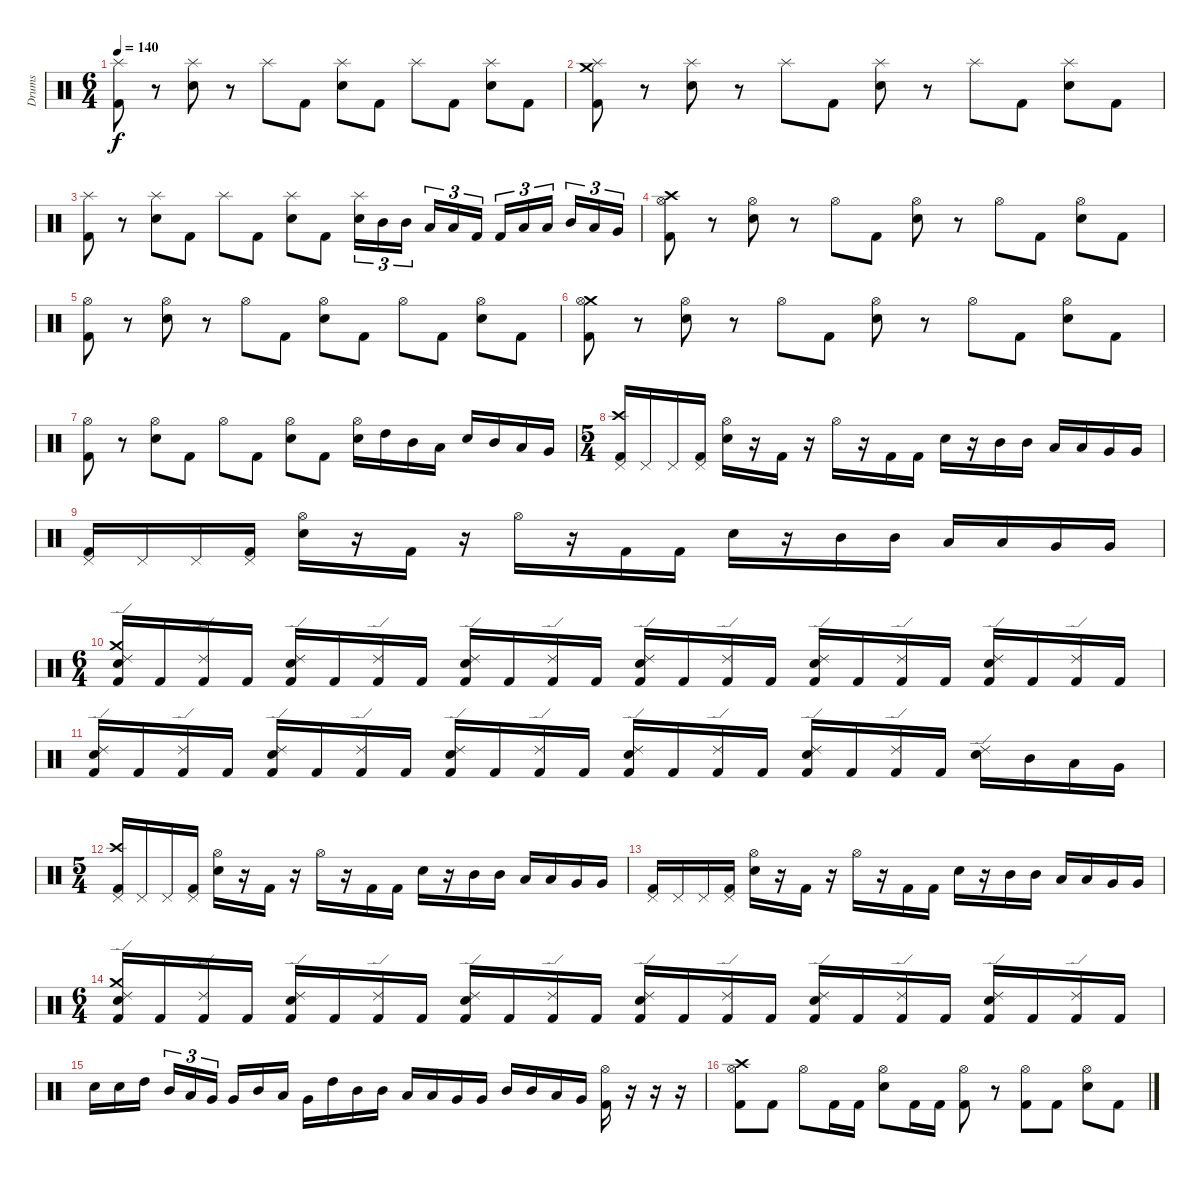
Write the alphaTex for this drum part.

\track ("Drums" "Drums") {instrument percussion}
\staff {score}
\articulation defaults
\ts (6 4)
\tempo 140
\clef neutral
\ks c
("Splash (hit)" "Kick (hit) 2").8{dy f} r.8 ("Splash (hit)" "Electric Snare (hit)").8 r.8 "Splash (hit)".8 "Kick (hit) 2".8 ("Splash (hit)" "Electric Snare (hit)").8 "Kick (hit) 2".8 "Splash (hit)".8 "Kick (hit) 2".8 ("Splash (hit)" "Electric Snare (hit)").8 "Kick (hit) 2".8 |
("Crash medium (hit)" "Splash (hit)" "Kick (hit) 2").8 r.8 ("Splash (hit)" "Electric Snare (hit)").8 r.8 "Splash (hit)".8 "Kick (hit) 2".8 ("Splash (hit)" "Electric Snare (hit)").8 r.8 "Splash (hit)".8 "Kick (hit) 2".8 ("Splash (hit)" "Electric Snare (hit)").8 "Kick (hit) 2".8 |
("Splash (hit)" "Kick (hit) 2").8 r.8 ("Splash (hit)" "Electric Snare (hit)").8 "Kick (hit) 2".8 "Splash (hit)".8 "Kick (hit) 2".8 ("Splash (hit)" "Electric Snare (hit)").8 "Kick (hit) 2".8 ("Splash (hit)" "Electric Snare (hit)").16{tu (3 2)} "Mid Tom (hit)".16{tu (3 2)} "Mid Tom (hit)".16{tu (3 2)} "Low Tom (hit)".16{tu (3 2)} "Low Tom (hit)".16{tu (3 2)} "Kick (hit) 2".16{tu (3 2)} "Kick (hit) 2".16{tu (3 2)} "Low Tom (hit)".16{tu (3 2)} "Low Tom (hit)".16{tu (3 2)} "Mid Tom (hit)".16{tu (3 2)} "Low Tom (hit)".16{tu (3 2)} "Very Low Tom (hit)".16{tu (3 2)} |
("Crash high (hit)" "Hi-Hat (open)" "Kick (hit) 2").8 r.8 ("Hi-Hat (open)" "Electric Snare (hit)").8 r.8 "Hi-Hat (open)".8 "Kick (hit) 2".8 ("Hi-Hat (open)" "Electric Snare (hit)").8 r.8 "Hi-Hat (open)".8 "Kick (hit) 2".8 ("Hi-Hat (open)" "Electric Snare (hit)").8 "Kick (hit) 2".8 |
("Hi-Hat (open)" "Kick (hit) 2").8 r.8 ("Hi-Hat (open)" "Electric Snare (hit)").8 r.8 "Hi-Hat (open)".8 "Kick (hit) 2".8 ("Hi-Hat (open)" "Electric Snare (hit)").8 "Kick (hit) 2".8 "Hi-Hat (open)".8 "Kick (hit) 2".8 ("Hi-Hat (open)" "Electric Snare (hit)").8 "Kick (hit) 2".8 |
("Crash medium (hit)" "Hi-Hat (open)" "Kick (hit) 2").8 r.8 ("Hi-Hat (open)" "Electric Snare (hit)").8 r.8 "Hi-Hat (open)".8 "Kick (hit) 2".8 ("Hi-Hat (open)" "Electric Snare (hit)").8 r.8 "Hi-Hat (open)".8 "Kick (hit) 2".8 ("Hi-Hat (open)" "Electric Snare (hit)").8 "Kick (hit) 2".8 |
("Hi-Hat (open)" "Kick (hit) 2").8 r.8 ("Hi-Hat (open)" "Electric Snare (hit)").8 "Kick (hit) 2".8 "Hi-Hat (open)".8 "Kick (hit) 2".8 ("Hi-Hat (open)" "Electric Snare (hit)").8 "Kick (hit) 2".8 ("Hi-Hat (open)" "Electric Snare (hit)").16 "High Tom (hit)".16 "Mid Tom (hit)".16 "Low Tom (hit)".16 "Electric Snare (hit)".16 "Mid Tom (hit)".16 "Low Tom (hit)".16 "Very Low Tom (hit)".16 |
\ts (5 4)
("Crash high (hit)" "Pedal Hi-Hat (hit)" "Kick (hit) 2").16 "Pedal Hi-Hat (hit)".16 "Pedal Hi-Hat (hit)".16 ("Pedal Hi-Hat (hit)" "Kick (hit) 2").16 ("Hi-Hat (open)" "Electric Snare (hit)").16 r.16 "Kick (hit) 2".16 r.16 "Hi-Hat (open)".16 r.16 "Kick (hit) 2".16 "Kick (hit) 2".16 "Electric Snare (hit)".16 r.16 "Mid Tom (hit)".16 "Mid Tom (hit)".16 "Low Tom (hit)".16 "Low Tom (hit)".16 "Very Low Tom (hit)".16 "Very Low Tom (hit)".16 |
("Pedal Hi-Hat (hit)" "Kick (hit) 2").16 "Pedal Hi-Hat (hit)".16 "Pedal Hi-Hat (hit)".16 ("Pedal Hi-Hat (hit)" "Kick (hit) 2").16 ("Hi-Hat (open)" "Electric Snare (hit)").16 r.16 "Kick (hit) 2".16 r.16 "Hi-Hat (open)".16 r.16 "Kick (hit) 2".16 "Kick (hit) 2".16 "Electric Snare (hit)".16 r.16 "Mid Tom (hit)".16 "Mid Tom (hit)".16 "Low Tom (hit)".16 "Low Tom (hit)".16 "Very Low Tom (hit)".16 "Very Low Tom (hit)".16 |
\ts (6 4)
("Crash medium (hit)" "Ride (edge) 2" "Electric Snare (hit)" "Kick (hit) 2").16 "Kick (hit) 2".16 ("Ride (edge) 2" "Kick (hit) 2").16 "Kick (hit) 2".16 ("Ride (edge) 2" "Electric Snare (hit)" "Kick (hit) 2").16 "Kick (hit) 2".16 ("Ride (edge) 2" "Kick (hit) 2").16 "Kick (hit) 2".16 ("Ride (edge) 2" "Electric Snare (hit)" "Kick (hit) 2").16 "Kick (hit) 2".16 ("Ride (edge) 2" "Kick (hit) 2").16 "Kick (hit) 2".16 ("Ride (edge) 2" "Electric Snare (hit)" "Kick (hit) 2").16 "Kick (hit) 2".16 ("Ride (edge) 2" "Kick (hit) 2").16 "Kick (hit) 2".16 ("Ride (edge) 2" "Electric Snare (hit)" "Kick (hit) 2").16 "Kick (hit) 2".16 ("Ride (edge) 2" "Kick (hit) 2").16 "Kick (hit) 2".16 ("Ride (edge) 2" "Electric Snare (hit)" "Kick (hit) 2").16 "Kick (hit) 2".16 ("Ride (edge) 2" "Kick (hit) 2").16 "Kick (hit) 2".16 |
("Ride (edge) 2" "Electric Snare (hit)" "Kick (hit) 2").16 "Kick (hit) 2".16 ("Ride (edge) 2" "Kick (hit) 2").16 "Kick (hit) 2".16 ("Ride (edge) 2" "Electric Snare (hit)" "Kick (hit) 2").16 "Kick (hit) 2".16 ("Ride (edge) 2" "Kick (hit) 2").16 "Kick (hit) 2".16 ("Ride (edge) 2" "Electric Snare (hit)" "Kick (hit) 2").16 "Kick (hit) 2".16 ("Ride (edge) 2" "Kick (hit) 2").16 "Kick (hit) 2".16 ("Ride (edge) 2" "Electric Snare (hit)" "Kick (hit) 2").16 "Kick (hit) 2".16 ("Ride (edge) 2" "Kick (hit) 2").16 "Kick (hit) 2".16 ("Ride (edge) 2" "Electric Snare (hit)" "Kick (hit) 2").16 "Kick (hit) 2".16 ("Ride (edge) 2" "Kick (hit) 2").16 "Kick (hit) 2".16 ("Ride (edge) 2" "Electric Snare (hit)").16 "Mid Tom (hit)".16 "Low Tom (hit)".16 "Very Low Tom (hit)".16 |
\ts (5 4)
("Crash high (hit)" "Pedal Hi-Hat (hit)" "Kick (hit) 2").16 "Pedal Hi-Hat (hit)".16 "Pedal Hi-Hat (hit)".16 ("Pedal Hi-Hat (hit)" "Kick (hit) 2").16 ("Hi-Hat (open)" "Electric Snare (hit)").16 r.16 "Kick (hit) 2".16 r.16 "Hi-Hat (open)".16 r.16 "Kick (hit) 2".16 "Kick (hit) 2".16 "Electric Snare (hit)".16 r.16 "Mid Tom (hit)".16 "Mid Tom (hit)".16 "Low Tom (hit)".16 "Low Tom (hit)".16 "Very Low Tom (hit)".16 "Very Low Tom (hit)".16 |
("Pedal Hi-Hat (hit)" "Kick (hit) 2").16 "Pedal Hi-Hat (hit)".16 "Pedal Hi-Hat (hit)".16 ("Pedal Hi-Hat (hit)" "Kick (hit) 2").16 ("Hi-Hat (open)" "Electric Snare (hit)").16 r.16 "Kick (hit) 2".16 r.16 "Hi-Hat (open)".16 r.16 "Kick (hit) 2".16 "Kick (hit) 2".16 "Electric Snare (hit)".16 r.16 "Mid Tom (hit)".16 "Mid Tom (hit)".16 "Low Tom (hit)".16 "Low Tom (hit)".16 "Very Low Tom (hit)".16 "Very Low Tom (hit)".16 |
\ts (6 4)
("Crash medium (hit)" "Ride (edge) 2" "Electric Snare (hit)" "Kick (hit) 2").16 "Kick (hit) 2".16 ("Ride (edge) 2" "Kick (hit) 2").16 "Kick (hit) 2".16 ("Ride (edge) 2" "Electric Snare (hit)" "Kick (hit) 2").16 "Kick (hit) 2".16 ("Ride (edge) 2" "Kick (hit) 2").16 "Kick (hit) 2".16 ("Ride (edge) 2" "Electric Snare (hit)" "Kick (hit) 2").16 "Kick (hit) 2".16 ("Ride (edge) 2" "Kick (hit) 2").16 "Kick (hit) 2".16 ("Ride (edge) 2" "Electric Snare (hit)" "Kick (hit) 2").16 "Kick (hit) 2".16 ("Ride (edge) 2" "Kick (hit) 2").16 "Kick (hit) 2".16 ("Ride (edge) 2" "Electric Snare (hit)" "Kick (hit) 2").16 "Kick (hit) 2".16 ("Ride (edge) 2" "Kick (hit) 2").16 "Kick (hit) 2".16 ("Ride (edge) 2" "Electric Snare (hit)" "Kick (hit) 2").16 "Kick (hit) 2".16 ("Ride (edge) 2" "Kick (hit) 2").16 "Kick (hit) 2".16 |
"Electric Snare (hit)".16 "Electric Snare (hit)".16 "High Tom (hit)".16 "Mid Tom (hit)".16{tu (3 2)} "Low Tom (hit)".16{tu (3 2)} "Very Low Tom (hit)".16{tu (3 2)} "Very Low Tom (hit)".16 "Mid Tom (hit)".16 "Low Tom (hit)".16 "Very Low Tom (hit)".16 "High Tom (hit)".16 "Mid Tom (hit)".16 "Mid Tom (hit)".16 "Low Tom (hit)".16 "Low Tom (hit)".16 "Very Low Tom (hit)".16 "Very Low Tom (hit)".16 "Mid Tom (hit)".16 "Mid Tom (hit)".16 "Low Tom (hit)".16 "Very Low Tom (hit)".16 ("Hi-Hat (open)" "Kick (hit) 2").16 r.16 r.16 r.16 |
("Crash high (hit)" "Hi-Hat (open)" "Kick (hit) 2").8 "Kick (hit) 2".8 "Hi-Hat (open)".8 "Kick (hit) 2".16 "Kick (hit) 2".16 ("Hi-Hat (open)" "Electric Snare (hit)").8 "Kick (hit) 2".16 "Kick (hit) 2".16 ("Hi-Hat (open)" "Kick (hit) 2").8 r.8 ("Hi-Hat (open)" "Kick (hit) 2").8 "Kick (hit) 2".8 ("Hi-Hat (open)" "Electric Snare (hit)").8 "Kick (hit) 2".8
